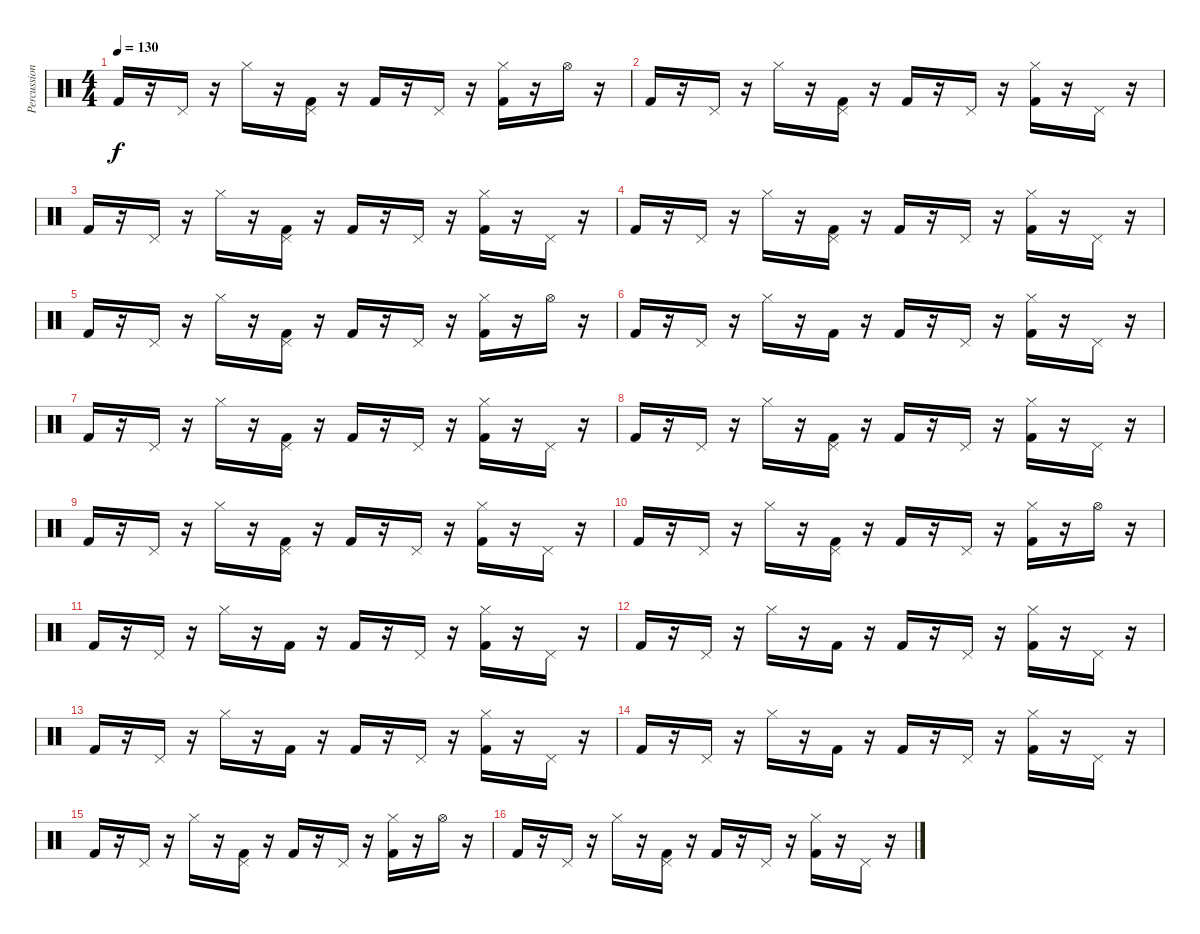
\track ("Percussion" "Percussion") {instrument percussion}
\staff {score}
\articulation defaults
\ts (4 4)
\tempo 130
\clef neutral
\ks c "Kick (hit) 2".16{dy f}
r.16 "Pedal Hi-Hat (hit)".16 r.16 "Hi-Hat (closed)".16 r.16 ("Kick (hit) 2" "Pedal Hi-Hat (hit)").16 r.16 "Kick (hit) 2".16 r.16 "Pedal Hi-Hat (hit)".16 r.16 ("Kick (hit) 2" "Hi-Hat (closed)").16 r.16 "Hi-Hat (open)".16 r.16 |
"Kick (hit) 2".16 r.16 "Pedal Hi-Hat (hit)".16 r.16 "Hi-Hat (closed)".16 r.16 ("Kick (hit) 2" "Pedal Hi-Hat (hit)").16 r.16 "Kick (hit) 2".16 r.16 "Pedal Hi-Hat (hit)".16 r.16 ("Kick (hit) 2" "Hi-Hat (closed)").16 r.16 "Pedal Hi-Hat (hit)".16 r.16 |
"Kick (hit) 2".16 r.16 "Pedal Hi-Hat (hit)".16 r.16 "Hi-Hat (closed)".16 r.16 ("Kick (hit) 2" "Pedal Hi-Hat (hit)").16 r.16 "Kick (hit) 2".16 r.16 "Pedal Hi-Hat (hit)".16 r.16 ("Kick (hit) 2" "Hi-Hat (closed)").16 r.16 "Pedal Hi-Hat (hit)".16 r.16 |
"Kick (hit) 2".16 r.16 "Pedal Hi-Hat (hit)".16 r.16 "Hi-Hat (closed)".16 r.16 ("Kick (hit) 2" "Pedal Hi-Hat (hit)").16 r.16 "Kick (hit) 2".16 r.16 "Pedal Hi-Hat (hit)".16 r.16 ("Kick (hit) 2" "Hi-Hat (closed)").16 r.16 "Pedal Hi-Hat (hit)".16 r.16 |
"Kick (hit) 2".16 r.16 "Pedal Hi-Hat (hit)".16 r.16 "Hi-Hat (closed)".16 r.16 ("Kick (hit) 2" "Pedal Hi-Hat (hit)").16 r.16 "Kick (hit) 2".16 r.16 "Pedal Hi-Hat (hit)".16 r.16 ("Kick (hit) 2" "Hi-Hat (closed)").16 r.16 "Hi-Hat (open)".16 r.16 |
"Kick (hit) 2".16 r.16 "Pedal Hi-Hat (hit)".16 r.16 "Hi-Hat (closed)".16 r.16 "Kick (hit) 2".16 r.16 "Kick (hit) 2".16 r.16 "Pedal Hi-Hat (hit)".16 r.16 ("Kick (hit) 2" "Hi-Hat (closed)").16 r.16 "Pedal Hi-Hat (hit)".16 r.16 |
"Kick (hit) 2".16 r.16 "Pedal Hi-Hat (hit)".16 r.16 "Hi-Hat (closed)".16 r.16 ("Kick (hit) 2" "Pedal Hi-Hat (hit)").16 r.16 "Kick (hit) 2".16 r.16 "Pedal Hi-Hat (hit)".16 r.16 ("Kick (hit) 2" "Hi-Hat (closed)").16 r.16 "Pedal Hi-Hat (hit)".16 r.16 |
"Kick (hit) 2".16 r.16 "Pedal Hi-Hat (hit)".16 r.16 "Hi-Hat (closed)".16 r.16 ("Kick (hit) 2" "Pedal Hi-Hat (hit)").16 r.16 "Kick (hit) 2".16 r.16 "Pedal Hi-Hat (hit)".16 r.16 ("Kick (hit) 2" "Hi-Hat (closed)").16 r.16 "Pedal Hi-Hat (hit)".16 r.16 |
"Kick (hit) 2".16 r.16 "Pedal Hi-Hat (hit)".16 r.16 "Hi-Hat (closed)".16 r.16 ("Kick (hit) 2" "Pedal Hi-Hat (hit)").16 r.16 "Kick (hit) 2".16 r.16 "Pedal Hi-Hat (hit)".16 r.16 ("Kick (hit) 2" "Hi-Hat (closed)").16 r.16 "Pedal Hi-Hat (hit)".16 r.16 |
"Kick (hit) 2".16 r.16 "Pedal Hi-Hat (hit)".16 r.16 "Hi-Hat (closed)".16 r.16 ("Kick (hit) 2" "Pedal Hi-Hat (hit)").16 r.16 "Kick (hit) 2".16 r.16 "Pedal Hi-Hat (hit)".16 r.16 ("Kick (hit) 2" "Hi-Hat (closed)").16 r.16 "Hi-Hat (open)".16 r.16 |
"Kick (hit) 2".16 r.16 "Pedal Hi-Hat (hit)".16 r.16 "Hi-Hat (closed)".16 r.16 "Kick (hit) 2".16 r.16 "Kick (hit) 2".16 r.16 "Pedal Hi-Hat (hit)".16 r.16 ("Kick (hit) 2" "Hi-Hat (closed)").16 r.16 "Pedal Hi-Hat (hit)".16 r.16 |
"Kick (hit) 2".16 r.16 "Pedal Hi-Hat (hit)".16 r.16 "Hi-Hat (closed)".16 r.16 "Kick (hit) 2".16 r.16 "Kick (hit) 2".16 r.16 "Pedal Hi-Hat (hit)".16 r.16 ("Kick (hit) 2" "Hi-Hat (closed)").16 r.16 "Pedal Hi-Hat (hit)".16 r.16 |
"Kick (hit) 2".16 r.16 "Pedal Hi-Hat (hit)".16 r.16 "Hi-Hat (closed)".16 r.16 "Kick (hit) 2".16 r.16 "Kick (hit) 2".16 r.16 "Pedal Hi-Hat (hit)".16 r.16 ("Kick (hit) 2" "Hi-Hat (closed)").16 r.16 "Pedal Hi-Hat (hit)".16 r.16 |
"Kick (hit) 2".16 r.16 "Pedal Hi-Hat (hit)".16 r.16 "Hi-Hat (closed)".16 r.16 "Kick (hit) 2".16 r.16 "Kick (hit) 2".16 r.16 "Pedal Hi-Hat (hit)".16 r.16 ("Kick (hit) 2" "Hi-Hat (closed)").16 r.16 "Pedal Hi-Hat (hit)".16 r.16 |
"Kick (hit) 2".16 r.16 "Pedal Hi-Hat (hit)".16 r.16 "Hi-Hat (closed)".16 r.16 ("Kick (hit) 2" "Pedal Hi-Hat (hit)").16 r.16 "Kick (hit) 2".16 r.16 "Pedal Hi-Hat (hit)".16 r.16 ("Kick (hit) 2" "Hi-Hat (closed)").16 r.16 "Hi-Hat (open)".16 r.16 |
"Kick (hit) 2".16 r.16 "Pedal Hi-Hat (hit)".16 r.16 "Hi-Hat (closed)".16 r.16 ("Kick (hit) 2" "Pedal Hi-Hat (hit)").16 r.16 "Kick (hit) 2".16 r.16 "Pedal Hi-Hat (hit)".16 r.16 ("Kick (hit) 2" "Hi-Hat (closed)").16 r.16 "Pedal Hi-Hat (hit)".16 r.16
